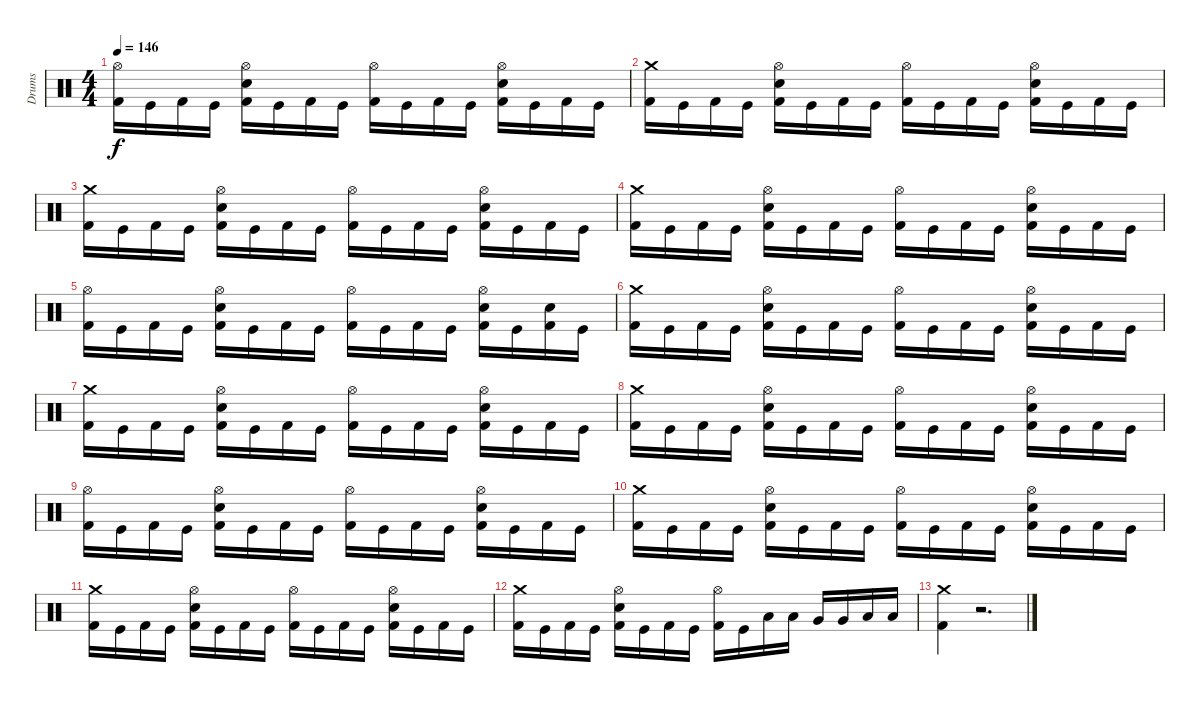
\track ("Drums" "Drums") {instrument percussion}
\staff {score}
\articulation defaults
\ts (4 4)
\tempo 146
\clef neutral
\ks c
("Hi-Hat (open)" "Kick (hit) 2").16{dy f} "Kick (hit)".16 "Kick (hit) 2".16 "Kick (hit)".16 ("Hi-Hat (open)" "Snare (hit) 2" "Kick (hit) 2").16 "Kick (hit)".16 "Kick (hit) 2".16 "Kick (hit)".16 ("Hi-Hat (open)" "Kick (hit) 2").16 "Kick (hit)".16 "Kick (hit) 2".16 "Kick (hit)".16 ("Hi-Hat (open)" "Snare (hit) 2" "Kick (hit) 2").16 "Kick (hit)".16 "Kick (hit) 2".16 "Kick (hit)".16 |
("Crash medium (hit)" "Kick (hit) 2").16 "Kick (hit)".16 "Kick (hit) 2".16 "Kick (hit)".16 ("Hi-Hat (open)" "Snare (hit) 2" "Kick (hit) 2").16 "Kick (hit)".16 "Kick (hit) 2".16 "Kick (hit)".16 ("Hi-Hat (open)" "Kick (hit) 2").16 "Kick (hit)".16 "Kick (hit) 2".16 "Kick (hit)".16 ("Hi-Hat (open)" "Snare (hit) 2" "Kick (hit) 2").16 "Kick (hit)".16 "Kick (hit) 2".16 "Kick (hit)".16 |
("Crash medium (hit)" "Kick (hit) 2").16 "Kick (hit)".16 "Kick (hit) 2".16 "Kick (hit)".16 ("Hi-Hat (open)" "Snare (hit) 2" "Kick (hit) 2").16 "Kick (hit)".16 "Kick (hit) 2".16 "Kick (hit)".16 ("Hi-Hat (open)" "Kick (hit) 2").16 "Kick (hit)".16 "Kick (hit) 2".16 "Kick (hit)".16 ("Hi-Hat (open)" "Snare (hit) 2" "Kick (hit) 2").16 "Kick (hit)".16 "Kick (hit) 2".16 "Kick (hit)".16 |
("Crash medium (hit)" "Kick (hit) 2").16 "Kick (hit)".16 "Kick (hit) 2".16 "Kick (hit)".16 ("Hi-Hat (open)" "Snare (hit) 2" "Kick (hit) 2").16 "Kick (hit)".16 "Kick (hit) 2".16 "Kick (hit)".16 ("Hi-Hat (open)" "Kick (hit) 2").16 "Kick (hit)".16 "Kick (hit) 2".16 "Kick (hit)".16 ("Hi-Hat (open)" "Snare (hit) 2" "Kick (hit) 2").16 "Kick (hit)".16 "Kick (hit) 2".16 "Kick (hit)".16 |
("Hi-Hat (open)" "Kick (hit) 2").16 "Kick (hit)".16 "Kick (hit) 2".16 "Kick (hit)".16 ("Hi-Hat (open)" "Snare (hit) 2" "Kick (hit) 2").16 "Kick (hit)".16 "Kick (hit) 2".16 "Kick (hit)".16 ("Hi-Hat (open)" "Kick (hit) 2").16 "Kick (hit)".16 "Kick (hit) 2".16 "Kick (hit)".16 ("Hi-Hat (open)" "Snare (hit) 2" "Kick (hit) 2").16 "Kick (hit)".16 ("Snare (hit) 2" "Kick (hit) 2").16 "Kick (hit)".16 |
("Crash medium (hit)" "Kick (hit) 2").16 "Kick (hit)".16 "Kick (hit) 2".16 "Kick (hit)".16 ("Hi-Hat (open)" "Snare (hit) 2" "Kick (hit) 2").16 "Kick (hit)".16 "Kick (hit) 2".16 "Kick (hit)".16 ("Hi-Hat (open)" "Kick (hit) 2").16 "Kick (hit)".16 "Kick (hit) 2".16 "Kick (hit)".16 ("Hi-Hat (open)" "Snare (hit) 2" "Kick (hit) 2").16 "Kick (hit)".16 "Kick (hit) 2".16 "Kick (hit)".16 |
("Crash medium (hit)" "Kick (hit) 2").16 "Kick (hit)".16 "Kick (hit) 2".16 "Kick (hit)".16 ("Hi-Hat (open)" "Snare (hit) 2" "Kick (hit) 2").16 "Kick (hit)".16 "Kick (hit) 2".16 "Kick (hit)".16 ("Hi-Hat (open)" "Kick (hit) 2").16 "Kick (hit)".16 "Kick (hit) 2".16 "Kick (hit)".16 ("Hi-Hat (open)" "Snare (hit) 2" "Kick (hit) 2").16 "Kick (hit)".16 "Kick (hit) 2".16 "Kick (hit)".16 |
("Crash medium (hit)" "Kick (hit) 2").16 "Kick (hit)".16 "Kick (hit) 2".16 "Kick (hit)".16 ("Hi-Hat (open)" "Snare (hit) 2" "Kick (hit) 2").16 "Kick (hit)".16 "Kick (hit) 2".16 "Kick (hit)".16 ("Hi-Hat (open)" "Kick (hit) 2").16 "Kick (hit)".16 "Kick (hit) 2".16 "Kick (hit)".16 ("Hi-Hat (open)" "Snare (hit) 2" "Kick (hit) 2").16 "Kick (hit)".16 "Kick (hit) 2".16 "Kick (hit)".16 |
("Hi-Hat (open)" "Kick (hit) 2").16 "Kick (hit)".16 "Kick (hit) 2".16 "Kick (hit)".16 ("Hi-Hat (open)" "Snare (hit) 2" "Kick (hit) 2").16 "Kick (hit)".16 "Kick (hit) 2".16 "Kick (hit)".16 ("Hi-Hat (open)" "Kick (hit) 2").16 "Kick (hit)".16 "Kick (hit) 2".16 "Kick (hit)".16 ("Hi-Hat (open)" "Snare (hit) 2" "Kick (hit) 2").16 "Kick (hit)".16 "Kick (hit) 2".16 "Kick (hit)".16 |
("Crash medium (hit)" "Kick (hit) 2").16 "Kick (hit)".16 "Kick (hit) 2".16 "Kick (hit)".16 ("Hi-Hat (open)" "Snare (hit) 2" "Kick (hit) 2").16 "Kick (hit)".16 "Kick (hit) 2".16 "Kick (hit)".16 ("Hi-Hat (open)" "Kick (hit) 2").16 "Kick (hit)".16 "Kick (hit) 2".16 "Kick (hit)".16 ("Hi-Hat (open)" "Snare (hit) 2" "Kick (hit) 2").16 "Kick (hit)".16 "Kick (hit) 2".16 "Kick (hit)".16 |
("Crash medium (hit)" "Kick (hit) 2").16 "Kick (hit)".16 "Kick (hit) 2".16 "Kick (hit)".16 ("Hi-Hat (open)" "Snare (hit) 2" "Kick (hit) 2").16 "Kick (hit)".16 "Kick (hit) 2".16 "Kick (hit)".16 ("Hi-Hat (open)" "Kick (hit) 2").16 "Kick (hit)".16 "Kick (hit) 2".16 "Kick (hit)".16 ("Hi-Hat (open)" "Snare (hit) 2" "Kick (hit) 2").16 "Kick (hit)".16 "Kick (hit) 2".16 "Kick (hit)".16 |
("Crash medium (hit)" "Kick (hit) 2").16 "Kick (hit)".16 "Kick (hit) 2".16 "Kick (hit)".16 ("Hi-Hat (open)" "Snare (hit) 2" "Kick (hit) 2").16 "Kick (hit)".16 "Kick (hit) 2".16 "Kick (hit)".16 ("Hi-Hat (open)" "Kick (hit) 2").16 "Kick (hit)".16 "Low Tom (hit)".16 "Low Tom (hit)".16 "Very Low Tom (hit)".16 "Very Low Tom (hit)".16 "Low Floor Tom (hit)".16 "Low Floor Tom (hit)".16 |
("Crash medium (hit)" "Kick (hit) 2").4 r.2{d}
